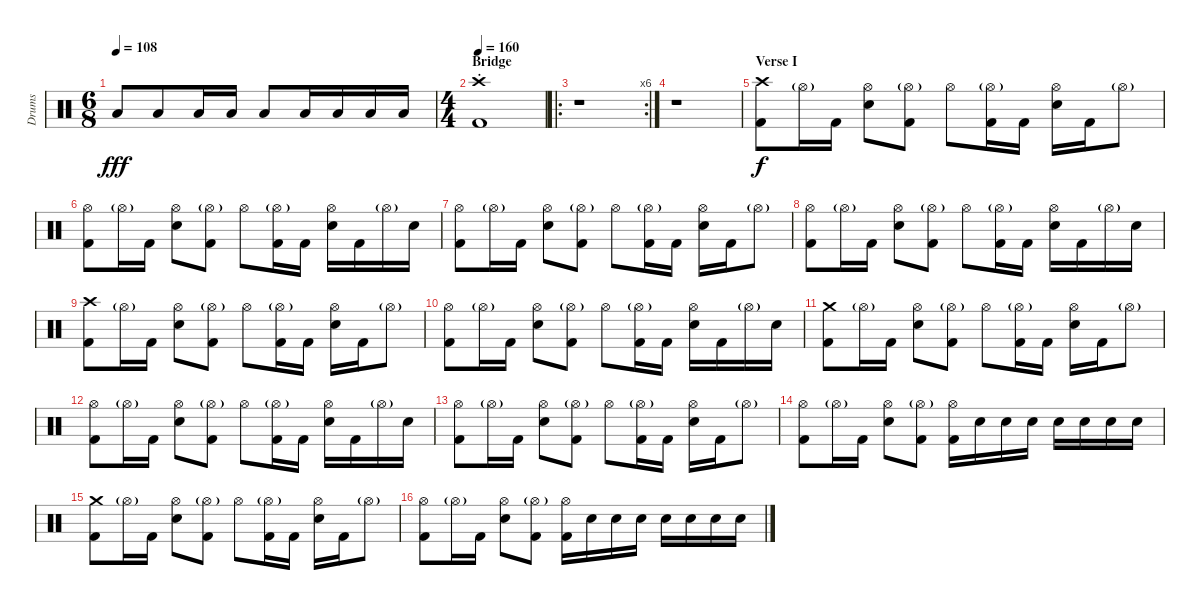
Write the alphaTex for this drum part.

\track ("Drums" "Drums") {instrument percussion}
\staff {score}
\articulation defaults
\ts (6 8)
\tempo 108
\clef neutral
\ks c "Low Floor Tom (hit)".8{dy fff} "Low Floor Tom (hit)".8 "Low Floor Tom (hit)".16 "Low Floor Tom (hit)".16 "Low Floor Tom (hit)".8 "Low Floor Tom (hit)".16 "Low Floor Tom (hit)".16 "Low Floor Tom (hit)".16 "Low Floor Tom (hit)".16
|
\ts (4 4)
\section ("" "Bridge")
\tempo 160
("Crash high (hit)" "Kick (hit) 2"{st}).1 |
\ro
\rc 6
r.1 |
r.1 |
\section ("" "Verse I")
("Crash high (hit)" "Kick (hit) 2").8{dy f} "Hi-Hat (open)"{g}.16 "Kick (hit) 2".16 ("Hi-Hat (open)" "Snare (hit) 2").8 ("Hi-Hat (open)"{g} "Kick (hit) 2").8 "Hi-Hat (open)".8 ("Hi-Hat (open)"{g} "Kick (hit) 2").16 "Kick (hit) 2".16 ("Hi-Hat (open)" "Snare (hit) 2").16 "Kick (hit) 2".16 "Hi-Hat (open)"{g}.8 |
("Hi-Hat (open)" "Kick (hit) 2").8 "Hi-Hat (open)"{g}.16 "Kick (hit) 2".16 ("Hi-Hat (open)" "Snare (hit) 2").8 ("Hi-Hat (open)"{g} "Kick (hit) 2").8 "Hi-Hat (open)".8 ("Hi-Hat (open)"{g} "Kick (hit) 2").16 "Kick (hit) 2".16 ("Hi-Hat (open)" "Snare (hit) 2").16 "Kick (hit) 2".16 "Hi-Hat (open)"{g}.16 "Snare (hit) 2".16 |
("Hi-Hat (open)" "Kick (hit) 2").8 "Hi-Hat (open)"{g}.16 "Kick (hit) 2".16 ("Hi-Hat (open)" "Snare (hit) 2").8 ("Hi-Hat (open)"{g} "Kick (hit) 2").8 "Hi-Hat (open)".8 ("Hi-Hat (open)"{g} "Kick (hit) 2").16 "Kick (hit) 2".16 ("Hi-Hat (open)" "Snare (hit) 2").16 "Kick (hit) 2".16 "Hi-Hat (open)"{g}.8 |
("Hi-Hat (open)" "Kick (hit) 2").8 "Hi-Hat (open)"{g}.16 "Kick (hit) 2".16 ("Hi-Hat (open)" "Snare (hit) 2").8 ("Hi-Hat (open)"{g} "Kick (hit) 2").8 "Hi-Hat (open)".8 ("Hi-Hat (open)"{g} "Kick (hit) 2").16 "Kick (hit) 2".16 ("Hi-Hat (open)" "Snare (hit) 2").16 "Kick (hit) 2".16 "Hi-Hat (open)"{g}.16 "Snare (hit) 2".16 |
("Crash high (hit)" "Kick (hit) 2").8 "Hi-Hat (open)"{g}.16 "Kick (hit) 2".16 ("Hi-Hat (open)" "Snare (hit) 2").8 ("Hi-Hat (open)"{g} "Kick (hit) 2").8 "Hi-Hat (open)".8 ("Hi-Hat (open)"{g} "Kick (hit) 2").16 "Kick (hit) 2".16 ("Hi-Hat (open)" "Snare (hit) 2").16 "Kick (hit) 2".16 "Hi-Hat (open)"{g}.8 |
("Hi-Hat (open)" "Kick (hit) 2").8 "Hi-Hat (open)"{g}.16 "Kick (hit) 2".16 ("Hi-Hat (open)" "Snare (hit) 2").8 ("Hi-Hat (open)"{g} "Kick (hit) 2").8 "Hi-Hat (open)".8 ("Hi-Hat (open)"{g} "Kick (hit) 2").16 "Kick (hit) 2".16 ("Hi-Hat (open)" "Snare (hit) 2").16 "Kick (hit) 2".16 "Hi-Hat (open)"{g}.16 "Snare (hit) 2".16 |
("Crash medium (hit)" "Kick (hit) 2").8 "Hi-Hat (open)"{g}.16 "Kick (hit) 2".16 ("Hi-Hat (open)" "Snare (hit) 2").8 ("Hi-Hat (open)"{g} "Kick (hit) 2").8 "Hi-Hat (open)".8 ("Hi-Hat (open)"{g} "Kick (hit) 2").16 "Kick (hit) 2".16 ("Hi-Hat (open)" "Snare (hit) 2").16 "Kick (hit) 2".16 "Hi-Hat (open)"{g}.8 |
("Hi-Hat (open)" "Kick (hit) 2").8 "Hi-Hat (open)"{g}.16 "Kick (hit) 2".16 ("Hi-Hat (open)" "Snare (hit) 2").8 ("Hi-Hat (open)"{g} "Kick (hit) 2").8 "Hi-Hat (open)".8 ("Hi-Hat (open)"{g} "Kick (hit) 2").16 "Kick (hit) 2".16 ("Hi-Hat (open)" "Snare (hit) 2").16 "Kick (hit) 2".16 "Hi-Hat (open)"{g}.16 "Snare (hit) 2".16 |
("Hi-Hat (open)" "Kick (hit) 2").8 "Hi-Hat (open)"{g}.16 "Kick (hit) 2".16 ("Hi-Hat (open)" "Snare (hit) 2").8 ("Hi-Hat (open)"{g} "Kick (hit) 2").8 "Hi-Hat (open)".8 ("Hi-Hat (open)"{g} "Kick (hit) 2").16 "Kick (hit) 2".16 ("Hi-Hat (open)" "Snare (hit) 2").16 "Kick (hit) 2".16 "Hi-Hat (open)"{g}.8 |
("Hi-Hat (open)" "Kick (hit) 2").8 "Hi-Hat (open)"{g}.16 "Kick (hit) 2".16 ("Hi-Hat (open)" "Snare (hit) 2").8 ("Hi-Hat (open)"{g} "Kick (hit) 2").8 ("Hi-Hat (open)" "Kick (hit) 2").16 "Snare (hit) 2".16 "Snare (hit) 2".16 "Snare (hit) 2".16 "Snare (hit) 2".16 "Snare (hit) 2".16 "Snare (hit) 2".16 "Snare (hit) 2".16 |
("Crash medium (hit)" "Kick (hit) 2").8 "Hi-Hat (open)"{g}.16 "Kick (hit) 2".16 ("Hi-Hat (open)" "Snare (hit) 2").8 ("Hi-Hat (open)"{g} "Kick (hit) 2").8 "Hi-Hat (open)".8 ("Hi-Hat (open)"{g} "Kick (hit) 2").16 "Kick (hit) 2".16 ("Hi-Hat (open)" "Snare (hit) 2").16 "Kick (hit) 2".16 "Hi-Hat (open)"{g}.8 |
("Hi-Hat (open)" "Kick (hit) 2").8 "Hi-Hat (open)"{g}.16 "Kick (hit) 2".16 ("Hi-Hat (open)" "Snare (hit) 2").8 ("Hi-Hat (open)"{g} "Kick (hit) 2").8 ("Hi-Hat (open)" "Kick (hit) 2").16 "Snare (hit) 2".16 "Snare (hit) 2".16 "Snare (hit) 2".16 "Snare (hit) 2".16 "Snare (hit) 2".16 "Snare (hit) 2".16 "Snare (hit) 2".16
